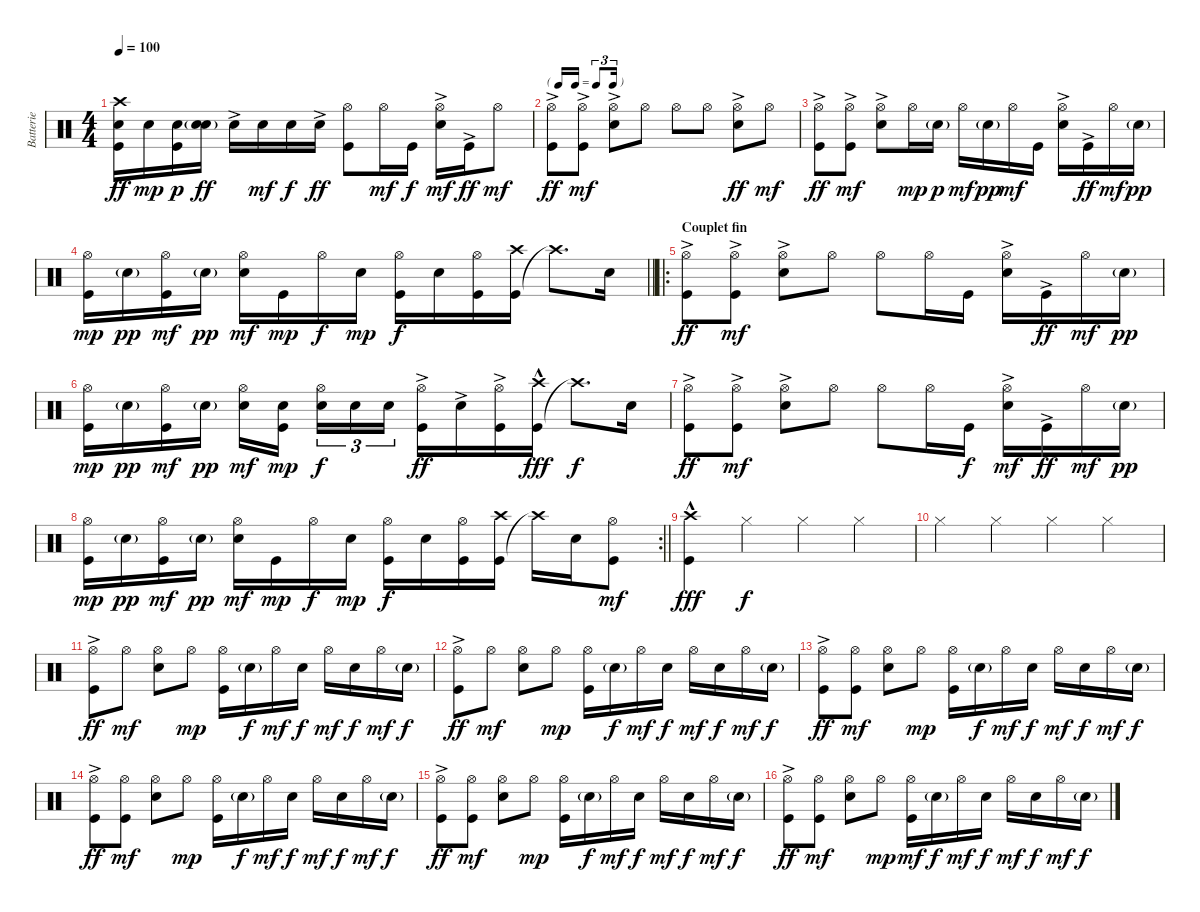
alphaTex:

\track ("Batterie" "Batterie") {instrument percussion}
\staff {score}
\articulation defaults
\ts (4 4)
\tempo 100
\clef neutral
\ks c
("Crash high (hit)" "Kick (hit)" "Snare (hit) 2").16{dy ff} "Snare (hit) 2".16{dy mp} ("Kick (hit)" "Snare (hit) 2").16{dy p} ("Snare (hit) 2"{g} "Snare (hit) 2").16{dy ff} "Snare (hit) 2"{ac}.16 "Snare (hit) 2".16{dy mf} "Snare (hit) 2".16{dy f} "Snare (hit) 2"{ac}.16{dy ff} ("Hi-Hat (open)" "Kick (hit)").8 "Hi-Hat (open)".16{dy mf} "Kick (hit)".16{dy f} ("Snare (hit) 2"{ac} "Hi-Hat (open)").16{dy mf} "Kick (hit)"{ac}.16{dy ff} "Hi-Hat (open)".8{dy mf} |
\tf triplet16th
("Hi-Hat (open)" "Kick (hit)"{ac}).8{dy ff} ("Kick (hit)"{ac} "Hi-Hat (open)").8{dy mf} ("Snare (hit) 2"{ac} "Hi-Hat (open)").8 "Hi-Hat (open)".8 "Hi-Hat (open)".8 "Hi-Hat (open)".8 ("Hi-Hat (open)" "Snare (hit) 2"{ac}).8{dy ff} "Hi-Hat (open)".8{dy mf} |
("Hi-Hat (open)" "Kick (hit)"{ac}).8{dy ff} ("Kick (hit)"{ac} "Hi-Hat (open)").8{dy mf} ("Snare (hit) 2"{ac} "Hi-Hat (open)").8 "Hi-Hat (open)".16{dy mp} "Snare (hit) 2"{g}.16{dy p} "Hi-Hat (open)".16{dy mf} "Snare (hit) 2"{g}.16{dy pp} "Hi-Hat (open)".16{dy mf} "Kick (hit)".16 ("Snare (hit) 2"{ac} "Hi-Hat (open)").16 "Kick (hit)"{ac}.16{dy ff} "Hi-Hat (open)".16{dy mf} "Snare (hit) 2"{g}.16{dy pp} |
\barLineRight lightlight
("Hi-Hat (open)" "Kick (hit)").16{dy mp} "Snare (hit) 2"{g}.16{dy pp} ("Hi-Hat (open)" "Kick (hit)").16{dy mf} "Snare (hit) 2"{g}.16{dy pp} ("Snare (hit) 2" "Hi-Hat (open)").16{dy mf} "Kick (hit)".16{dy mp} "Hi-Hat (open)".16{dy f} "Snare (hit) 2".16{dy mp} ("Kick (hit)" "Hi-Hat (open)").16{dy f} "Snare (hit) 2".16 ("Kick (hit)" "Hi-Hat (open)").16 ("Kick (hit)" "Crash high (hit)").16 "Crash high (hit)"{t}.8{d} "Snare (hit) 2".16 |
\ro
\section ("" "Couplet fin")
("Hi-Hat (open)" "Kick (hit)"{ac}).8{dy ff} ("Kick (hit)"{ac} "Hi-Hat (open)").8{dy mf} ("Snare (hit) 2"{ac} "Hi-Hat (open)").8 "Hi-Hat (open)".8 "Hi-Hat (open)".8 "Hi-Hat (open)".16 "Kick (hit)".16 ("Snare (hit) 2"{ac} "Hi-Hat (open)").16 "Kick (hit)"{ac}.16{dy ff} "Hi-Hat (open)".16{dy mf} "Snare (hit) 2"{g}.16{dy pp} |
("Hi-Hat (open)" "Kick (hit)").16{dy mp} "Snare (hit) 2"{g}.16{dy pp} ("Hi-Hat (open)" "Kick (hit)").16{dy mf} "Snare (hit) 2"{g}.16{dy pp} ("Snare (hit) 2" "Hi-Hat (open)").16{dy mf} ("Kick (hit)" "Snare (hit) 2").16{dy mp beam splitsecondary} ("Hi-Hat (open)" "Snare (hit) 2").16{tu (3 2) dy f} "Snare (hit) 2".16{tu (3 2)} "Snare (hit) 2".16{tu (3 2)} ("Kick (hit)"{ac} "Hi-Hat (open)").16{dy ff} "Snare (hit) 2"{ac}.16 ("Kick (hit)"{ac} "Hi-Hat (open)").16 ("Kick (hit)"{hac} "Crash high (hit)").16{dy fff} "Crash high (hit)"{t}.8{d dy f} "Snare (hit) 2".16 |
("Hi-Hat (open)" "Kick (hit)"{ac}).8{dy ff} ("Kick (hit)"{ac} "Hi-Hat (open)").8{dy mf} ("Snare (hit) 2"{ac} "Hi-Hat (open)").8 "Hi-Hat (open)".8 "Hi-Hat (open)".8 "Hi-Hat (open)".16 "Kick (hit)".16{dy f} ("Snare (hit) 2"{ac} "Hi-Hat (open)").16{dy mf} "Kick (hit)"{ac}.16{dy ff} "Hi-Hat (open)".16{dy mf} "Snare (hit) 2"{g}.16{dy pp} |
\rc 2
\barLineRight lightlight
("Hi-Hat (open)" "Kick (hit)").16{dy mp} "Snare (hit) 2"{g}.16{dy pp} ("Hi-Hat (open)" "Kick (hit)").16{dy mf} "Snare (hit) 2"{g}.16{dy pp} ("Snare (hit) 2" "Hi-Hat (open)").16{dy mf} "Kick (hit)".16{dy mp} "Hi-Hat (open)".16{dy f} "Snare (hit) 2".16{dy mp} ("Kick (hit)" "Hi-Hat (open)").16{dy f} "Snare (hit) 2".16 ("Kick (hit)" "Hi-Hat (open)").16 ("Kick (hit)" "Crash high (hit)").16 "Crash high (hit)"{t}.16 "Snare (hit) 2".16 ("Kick (hit)" "Hi-Hat (open)").8{dy mf} |
("Kick (hit)"{hac} "Crash high (hit)"{hac}).4{dy fff} "Hi-Hat (closed)".4{dy f} "Hi-Hat (closed)".4 "Hi-Hat (closed)".4 |
"Hi-Hat (closed)".4 "Hi-Hat (closed)".4 "Hi-Hat (closed)".4 "Hi-Hat (closed)".4 |
("Hi-Hat (open)" "Kick (hit)"{ac}).8{dy ff} "Hi-Hat (open)".8{dy mf} ("Snare (hit) 2" "Hi-Hat (open)").8 "Hi-Hat (open)".8{dy mp} ("Hi-Hat (open)" "Kick (hit)").16 "Snare (hit) 2"{g}.16{dy f} "Hi-Hat (open)".16{dy mf} "Snare (hit) 2".16{dy f} "Hi-Hat (open)".16{dy mf} "Snare (hit) 2".16{dy f} "Hi-Hat (open)".16{dy mf} "Snare (hit) 2"{g}.16{dy f} |
("Hi-Hat (open)" "Kick (hit)"{ac}).8{dy ff} "Hi-Hat (open)".8{dy mf} ("Snare (hit) 2" "Hi-Hat (open)").8 "Hi-Hat (open)".8{dy mp} ("Hi-Hat (open)" "Kick (hit)").16 "Snare (hit) 2"{g}.16{dy f} "Hi-Hat (open)".16{dy mf} "Snare (hit) 2".16{dy f} "Hi-Hat (open)".16{dy mf} "Snare (hit) 2".16{dy f} "Hi-Hat (open)".16{dy mf} "Snare (hit) 2"{g}.16{dy f} |
("Hi-Hat (open)" "Kick (hit)"{ac}).8{dy ff} ("Kick (hit)" "Hi-Hat (open)").8{dy mf} ("Snare (hit) 2" "Hi-Hat (open)").8 "Hi-Hat (open)".8{dy mp} ("Hi-Hat (open)" "Kick (hit)").16 "Snare (hit) 2"{g}.16{dy f} "Hi-Hat (open)".16{dy mf} "Snare (hit) 2".16{dy f} "Hi-Hat (open)".16{dy mf} "Snare (hit) 2".16{dy f} "Hi-Hat (open)".16{dy mf} "Snare (hit) 2"{g}.16{dy f} |
("Hi-Hat (open)" "Kick (hit)"{ac}).8{dy ff} ("Kick (hit)" "Hi-Hat (open)").8{dy mf} ("Snare (hit) 2" "Hi-Hat (open)").8 "Hi-Hat (open)".8{dy mp} ("Hi-Hat (open)" "Kick (hit)").16 "Snare (hit) 2"{g}.16{dy f} "Hi-Hat (open)".16{dy mf} "Snare (hit) 2".16{dy f} "Hi-Hat (open)".16{dy mf} "Snare (hit) 2".16{dy f} "Hi-Hat (open)".16{dy mf} "Snare (hit) 2"{g}.16{dy f} |
("Hi-Hat (open)" "Kick (hit)"{ac}).8{dy ff} ("Kick (hit)" "Hi-Hat (open)").8{dy mf} ("Snare (hit) 2" "Hi-Hat (open)").8 "Hi-Hat (open)".8{dy mp} ("Hi-Hat (open)" "Kick (hit)").16 "Snare (hit) 2"{g}.16{dy f} "Hi-Hat (open)".16{dy mf} "Snare (hit) 2".16{dy f} "Hi-Hat (open)".16{dy mf} "Snare (hit) 2".16{dy f} "Hi-Hat (open)".16{dy mf} "Snare (hit) 2"{g}.16{dy f} |
("Hi-Hat (open)" "Kick (hit)"{ac}).8{dy ff} ("Kick (hit)" "Hi-Hat (open)").8{dy mf} ("Snare (hit) 2" "Hi-Hat (open)").8 "Hi-Hat (open)".8{dy mp} ("Hi-Hat (open)" "Kick (hit)").16{dy mf} "Snare (hit) 2"{g}.16{dy f} "Hi-Hat (open)".16{dy mf} "Snare (hit) 2".16{dy f} "Hi-Hat (open)".16{dy mf} "Snare (hit) 2".16{dy f} "Hi-Hat (open)".16{dy mf} "Snare (hit) 2"{g}.16{dy f}
